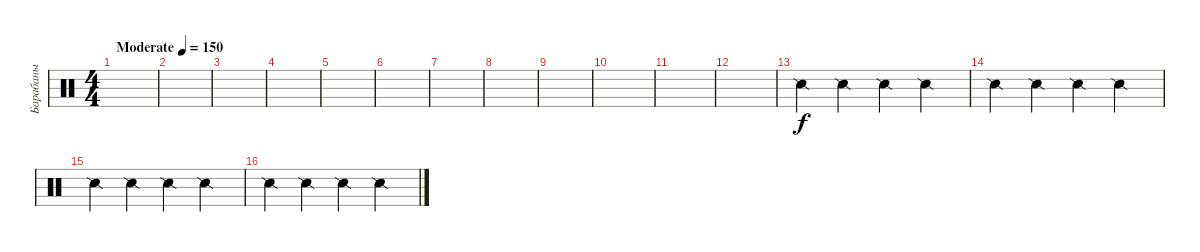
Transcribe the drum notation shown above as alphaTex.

\track ("Барабаны" "Барабаны") {instrument percussion}
\staff {score}
\articulation defaults
\ts (4 4)
\tempo (150 "Moderate")
\clef neutral
\ks c
|
|
|
|
|
|
|
|
|
|
|
|
"Snare (side stick) 2".4 "Snare (side stick) 2".4 "Snare (side stick) 2".4 "Snare (side stick) 2".4 |
"Snare (side stick) 2".4 "Snare (side stick) 2".4 "Snare (side stick) 2".4 "Snare (side stick) 2".4 |
"Snare (side stick) 2".4 "Snare (side stick) 2".4 "Snare (side stick) 2".4 "Snare (side stick) 2".4 |
"Snare (side stick) 2".4 "Snare (side stick) 2".4 "Snare (side stick) 2".4 "Snare (side stick) 2".4
